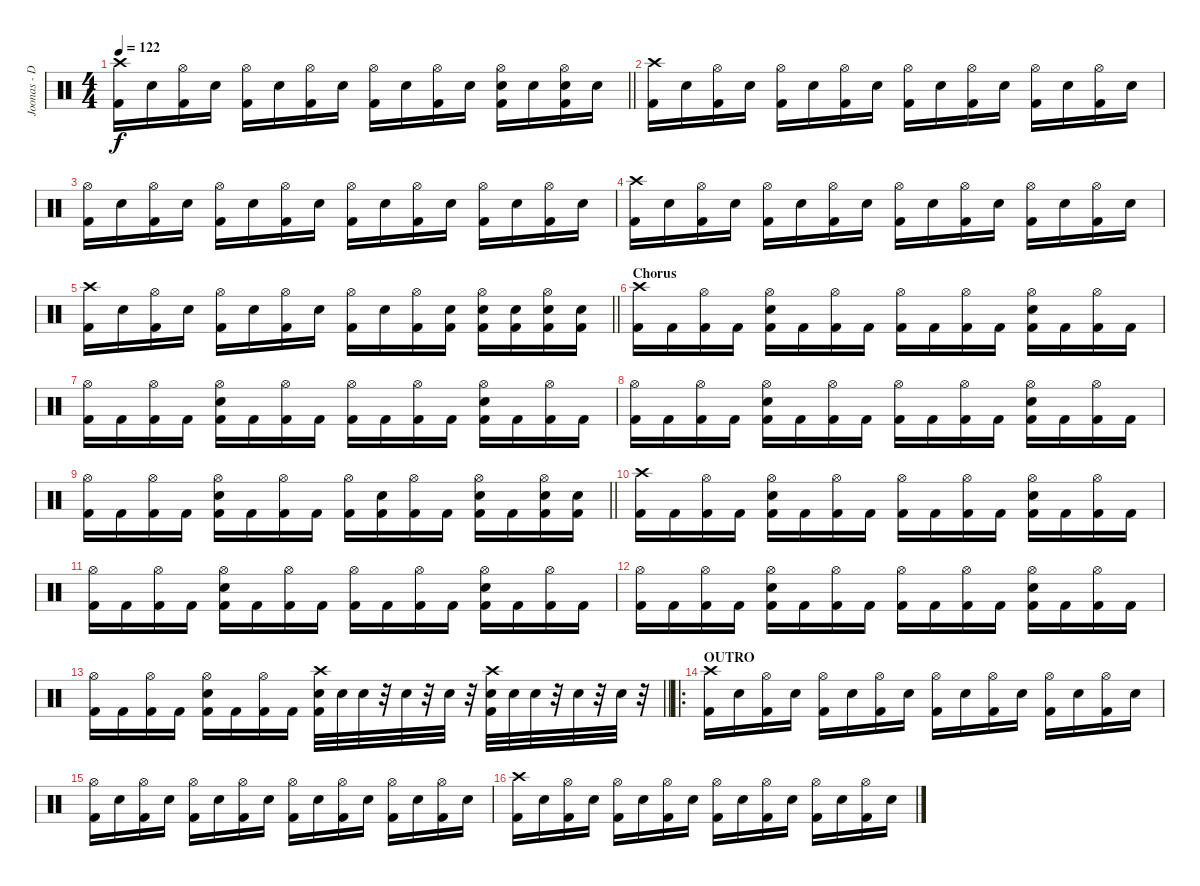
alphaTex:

\track ("Joonas - Drums" "Joonas - D") {instrument percussion}
\staff {score}
\articulation defaults
\ts (4 4)
\tempo 122
\clef neutral
\barLineRight lightlight
\ks c
("Crash high (hit)" "Kick (hit) 2").16{dy f} "Electric Snare (hit)".16 ("Hi-Hat (open)" "Kick (hit) 2").16 "Electric Snare (hit)".16 ("Hi-Hat (open)" "Kick (hit) 2").16 "Electric Snare (hit)".16 ("Hi-Hat (open)" "Kick (hit) 2").16 "Electric Snare (hit)".16 ("Hi-Hat (open)" "Kick (hit) 2").16 "Electric Snare (hit)".16 ("Hi-Hat (open)" "Kick (hit) 2").16 "Electric Snare (hit)".16 ("Hi-Hat (open)" "Electric Snare (hit)" "Kick (hit) 2").16 "Electric Snare (hit)".16 ("Hi-Hat (open)" "Electric Snare (hit)" "Kick (hit) 2").16 "Electric Snare (hit)".16 |
("Crash high (hit)" "Kick (hit) 2").16 "Electric Snare (hit)".16 ("Hi-Hat (open)" "Kick (hit) 2").16 "Electric Snare (hit)".16 ("Hi-Hat (open)" "Kick (hit) 2").16 "Electric Snare (hit)".16 ("Hi-Hat (open)" "Kick (hit) 2").16 "Electric Snare (hit)".16 ("Hi-Hat (open)" "Kick (hit) 2").16 "Electric Snare (hit)".16 ("Hi-Hat (open)" "Kick (hit) 2").16 "Electric Snare (hit)".16 ("Hi-Hat (open)" "Kick (hit) 2").16 "Electric Snare (hit)".16 ("Hi-Hat (open)" "Kick (hit) 2").16 "Electric Snare (hit)".16 |
("Hi-Hat (open)" "Kick (hit) 2").16 "Electric Snare (hit)".16 ("Hi-Hat (open)" "Kick (hit) 2").16 "Electric Snare (hit)".16 ("Hi-Hat (open)" "Kick (hit) 2").16 "Electric Snare (hit)".16 ("Hi-Hat (open)" "Kick (hit) 2").16 "Electric Snare (hit)".16 ("Hi-Hat (open)" "Kick (hit) 2").16 "Electric Snare (hit)".16 ("Hi-Hat (open)" "Kick (hit) 2").16 "Electric Snare (hit)".16 ("Hi-Hat (open)" "Kick (hit) 2").16 "Electric Snare (hit)".16 ("Hi-Hat (open)" "Kick (hit) 2").16 "Electric Snare (hit)".16 |
("Crash high (hit)" "Kick (hit) 2").16 "Electric Snare (hit)".16 ("Hi-Hat (open)" "Kick (hit) 2").16 "Electric Snare (hit)".16 ("Hi-Hat (open)" "Kick (hit) 2").16 "Electric Snare (hit)".16 ("Hi-Hat (open)" "Kick (hit) 2").16 "Electric Snare (hit)".16 ("Hi-Hat (open)" "Kick (hit) 2").16 "Electric Snare (hit)".16 ("Hi-Hat (open)" "Kick (hit) 2").16 "Electric Snare (hit)".16 ("Hi-Hat (open)" "Kick (hit) 2").16 "Electric Snare (hit)".16 ("Hi-Hat (open)" "Kick (hit) 2").16 "Electric Snare (hit)".16 |
\barLineRight lightlight
("Crash high (hit)" "Kick (hit) 2").16 "Electric Snare (hit)".16 ("Hi-Hat (open)" "Kick (hit) 2").16 "Electric Snare (hit)".16 ("Hi-Hat (open)" "Kick (hit) 2").16 "Electric Snare (hit)".16 ("Hi-Hat (open)" "Kick (hit) 2").16 "Electric Snare (hit)".16 ("Hi-Hat (open)" "Kick (hit) 2").16 "Electric Snare (hit)".16 ("Hi-Hat (open)" "Kick (hit) 2").16 ("Electric Snare (hit)" "Kick (hit) 2").16 ("Hi-Hat (open)" "Electric Snare (hit)" "Kick (hit) 2").16 ("Electric Snare (hit)" "Kick (hit) 2").16 ("Hi-Hat (open)" "Electric Snare (hit)" "Kick (hit) 2").16 ("Electric Snare (hit)" "Kick (hit) 2").16 |
\section ("" "Chorus")
("Crash high (hit)" "Kick (hit) 2").16 "Kick (hit) 2".16 ("Hi-Hat (open)" "Kick (hit) 2").16 "Kick (hit) 2".16 ("Hi-Hat (open)" "Electric Snare (hit)" "Kick (hit) 2").16 "Kick (hit) 2".16 ("Hi-Hat (open)" "Kick (hit) 2").16 "Kick (hit) 2".16 ("Hi-Hat (open)" "Kick (hit) 2").16 "Kick (hit) 2".16 ("Hi-Hat (open)" "Kick (hit) 2").16 "Kick (hit) 2".16 ("Hi-Hat (open)" "Electric Snare (hit)" "Kick (hit) 2").16 "Kick (hit) 2".16 ("Hi-Hat (open)" "Kick (hit) 2").16 "Kick (hit) 2".16 |
("Hi-Hat (open)" "Kick (hit) 2").16 "Kick (hit) 2".16 ("Hi-Hat (open)" "Kick (hit) 2").16 "Kick (hit) 2".16 ("Hi-Hat (open)" "Electric Snare (hit)" "Kick (hit) 2").16 "Kick (hit) 2".16 ("Hi-Hat (open)" "Kick (hit) 2").16 "Kick (hit) 2".16 ("Hi-Hat (open)" "Kick (hit) 2").16 "Kick (hit) 2".16 ("Hi-Hat (open)" "Kick (hit) 2").16 "Kick (hit) 2".16 ("Hi-Hat (open)" "Electric Snare (hit)" "Kick (hit) 2").16 "Kick (hit) 2".16 ("Hi-Hat (open)" "Kick (hit) 2").16 "Kick (hit) 2".16 |
("Hi-Hat (open)" "Kick (hit) 2").16 "Kick (hit) 2".16 ("Hi-Hat (open)" "Kick (hit) 2").16 "Kick (hit) 2".16 ("Hi-Hat (open)" "Electric Snare (hit)" "Kick (hit) 2").16 "Kick (hit) 2".16 ("Hi-Hat (open)" "Kick (hit) 2").16 "Kick (hit) 2".16 ("Hi-Hat (open)" "Kick (hit) 2").16 "Kick (hit) 2".16 ("Hi-Hat (open)" "Kick (hit) 2").16 "Kick (hit) 2".16 ("Hi-Hat (open)" "Electric Snare (hit)" "Kick (hit) 2").16 "Kick (hit) 2".16 ("Hi-Hat (open)" "Kick (hit) 2").16 "Kick (hit) 2".16 |
\barLineRight lightlight
("Hi-Hat (open)" "Kick (hit) 2").16 "Kick (hit) 2".16 ("Hi-Hat (open)" "Kick (hit) 2").16 "Kick (hit) 2".16 ("Hi-Hat (open)" "Electric Snare (hit)" "Kick (hit) 2").16 "Kick (hit) 2".16 ("Hi-Hat (open)" "Kick (hit) 2").16 "Kick (hit) 2".16 ("Hi-Hat (open)" "Kick (hit) 2").16 ("Electric Snare (hit)" "Kick (hit) 2").16 ("Hi-Hat (open)" "Kick (hit) 2").16 "Kick (hit) 2".16 ("Hi-Hat (open)" "Electric Snare (hit)" "Kick (hit) 2").16 "Kick (hit) 2".16 ("Hi-Hat (open)" "Electric Snare (hit)" "Kick (hit) 2").16 ("Electric Snare (hit)" "Kick (hit) 2").16 |
("Crash high (hit)" "Kick (hit) 2").16 "Kick (hit) 2".16 ("Hi-Hat (open)" "Kick (hit) 2").16 "Kick (hit) 2".16 ("Hi-Hat (open)" "Electric Snare (hit)" "Kick (hit) 2").16 "Kick (hit) 2".16 ("Hi-Hat (open)" "Kick (hit) 2").16 "Kick (hit) 2".16 ("Hi-Hat (open)" "Kick (hit) 2").16 "Kick (hit) 2".16 ("Hi-Hat (open)" "Kick (hit) 2").16 "Kick (hit) 2".16 ("Hi-Hat (open)" "Electric Snare (hit)" "Kick (hit) 2").16 "Kick (hit) 2".16 ("Hi-Hat (open)" "Kick (hit) 2").16 "Kick (hit) 2".16 |
("Hi-Hat (open)" "Kick (hit) 2").16 "Kick (hit) 2".16 ("Hi-Hat (open)" "Kick (hit) 2").16 "Kick (hit) 2".16 ("Hi-Hat (open)" "Electric Snare (hit)" "Kick (hit) 2").16 "Kick (hit) 2".16 ("Hi-Hat (open)" "Kick (hit) 2").16 "Kick (hit) 2".16 ("Hi-Hat (open)" "Kick (hit) 2").16 "Kick (hit) 2".16 ("Hi-Hat (open)" "Kick (hit) 2").16 "Kick (hit) 2".16 ("Hi-Hat (open)" "Electric Snare (hit)" "Kick (hit) 2").16 "Kick (hit) 2".16 ("Hi-Hat (open)" "Kick (hit) 2").16 "Kick (hit) 2".16 |
("Hi-Hat (open)" "Kick (hit) 2").16 "Kick (hit) 2".16 ("Hi-Hat (open)" "Kick (hit) 2").16 "Kick (hit) 2".16 ("Hi-Hat (open)" "Electric Snare (hit)" "Kick (hit) 2").16 "Kick (hit) 2".16 ("Hi-Hat (open)" "Kick (hit) 2").16 "Kick (hit) 2".16 ("Hi-Hat (open)" "Kick (hit) 2").16 "Kick (hit) 2".16 ("Hi-Hat (open)" "Kick (hit) 2").16 "Kick (hit) 2".16 ("Hi-Hat (open)" "Electric Snare (hit)" "Kick (hit) 2").16 "Kick (hit) 2".16 ("Hi-Hat (open)" "Kick (hit) 2").16 "Kick (hit) 2".16 |
\barLineRight lightlight
("Hi-Hat (open)" "Kick (hit) 2").16 "Kick (hit) 2".16 ("Hi-Hat (open)" "Kick (hit) 2").16 "Kick (hit) 2".16 ("Hi-Hat (open)" "Electric Snare (hit)" "Kick (hit) 2").16 "Kick (hit) 2".16 ("Hi-Hat (open)" "Kick (hit) 2").16 "Kick (hit) 2".16 ("Crash high (hit)" "Electric Snare (hit)" "Kick (hit) 2").32 "Electric Snare (hit)".32 "Electric Snare (hit)".32 r.32 "Electric Snare (hit)".32 r.32 "Electric Snare (hit)".32 r.32 ("Crash high (hit)" "Electric Snare (hit)" "Kick (hit) 2").32 "Electric Snare (hit)".32 "Electric Snare (hit)".32 r.32 "Electric Snare (hit)".32 r.32 "Electric Snare (hit)".32 r.32 |
\ro
\section ("" "OUTRO")
("Crash high (hit)" "Kick (hit) 2").16 "Electric Snare (hit)".16 ("Hi-Hat (open)" "Kick (hit) 2").16 "Electric Snare (hit)".16 ("Hi-Hat (open)" "Kick (hit) 2").16 "Electric Snare (hit)".16 ("Hi-Hat (open)" "Kick (hit) 2").16 "Electric Snare (hit)".16 ("Hi-Hat (open)" "Kick (hit) 2").16 "Electric Snare (hit)".16 ("Hi-Hat (open)" "Kick (hit) 2").16 "Electric Snare (hit)".16 ("Hi-Hat (open)" "Kick (hit) 2").16 "Electric Snare (hit)".16 ("Hi-Hat (open)" "Kick (hit) 2").16 "Electric Snare (hit)".16 |
("Hi-Hat (open)" "Kick (hit) 2").16 "Electric Snare (hit)".16 ("Hi-Hat (open)" "Kick (hit) 2").16 "Electric Snare (hit)".16 ("Hi-Hat (open)" "Kick (hit) 2").16 "Electric Snare (hit)".16 ("Hi-Hat (open)" "Kick (hit) 2").16 "Electric Snare (hit)".16 ("Hi-Hat (open)" "Kick (hit) 2").16 "Electric Snare (hit)".16 ("Hi-Hat (open)" "Kick (hit) 2").16 "Electric Snare (hit)".16 ("Hi-Hat (open)" "Kick (hit) 2").16 "Electric Snare (hit)".16 ("Hi-Hat (open)" "Kick (hit) 2").16 "Electric Snare (hit)".16 |
("Crash high (hit)" "Kick (hit) 2").16 "Electric Snare (hit)".16 ("Hi-Hat (open)" "Kick (hit) 2").16 "Electric Snare (hit)".16 ("Hi-Hat (open)" "Kick (hit) 2").16 "Electric Snare (hit)".16 ("Hi-Hat (open)" "Kick (hit) 2").16 "Electric Snare (hit)".16 ("Hi-Hat (open)" "Kick (hit) 2").16 "Electric Snare (hit)".16 ("Hi-Hat (open)" "Kick (hit) 2").16 "Electric Snare (hit)".16 ("Hi-Hat (open)" "Kick (hit) 2").16 "Electric Snare (hit)".16 ("Hi-Hat (open)" "Kick (hit) 2").16 "Electric Snare (hit)".16
